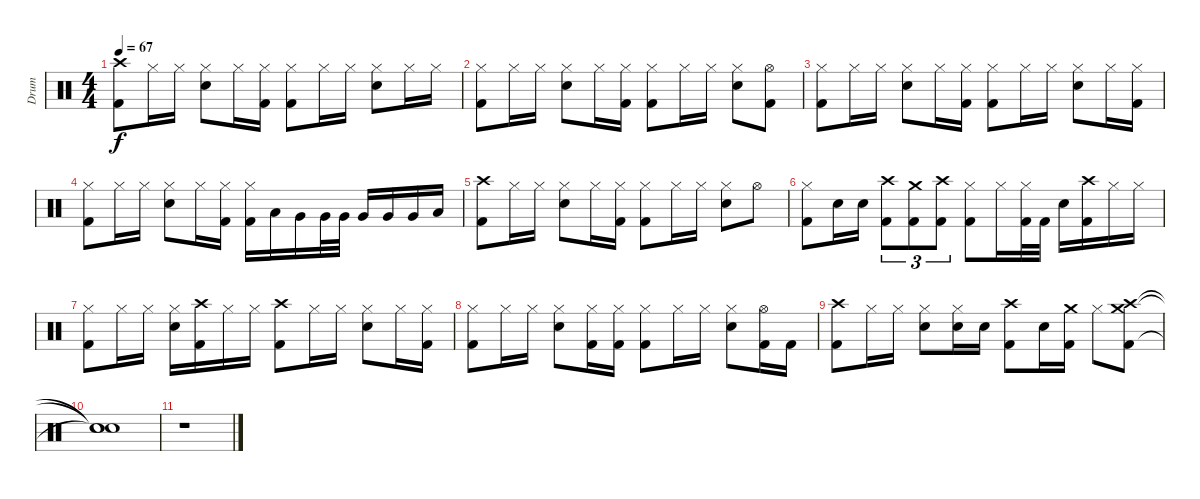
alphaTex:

\track ("Drum" "Drum") {instrument percussion}
\staff {score}
\articulation defaults
\ts (4 4)
\tempo 67
\clef neutral
\ks c
("Crash high (hit)" "Kick (hit) 2").8{dy f} "Hi-Hat (closed)".16 "Hi-Hat (closed)".16 ("Hi-Hat (closed)" "Electric Snare (hit)").8 "Hi-Hat (closed)".16 ("Hi-Hat (closed)" "Kick (hit) 2").16 ("Hi-Hat (closed)" "Kick (hit) 2").8 "Hi-Hat (closed)".16 "Hi-Hat (closed)".16 ("Hi-Hat (closed)" "Electric Snare (hit)").8 "Hi-Hat (closed)".16 "Hi-Hat (closed)".16 |
("Hi-Hat (closed)" "Kick (hit) 2").8 "Hi-Hat (closed)".16 "Hi-Hat (closed)".16 ("Hi-Hat (closed)" "Electric Snare (hit)").8 "Hi-Hat (closed)".16 ("Hi-Hat (closed)" "Kick (hit) 2").16 ("Hi-Hat (closed)" "Kick (hit) 2").8 "Hi-Hat (closed)".16 "Hi-Hat (closed)".16 ("Hi-Hat (closed)" "Electric Snare (hit)").8 ("Hi-Hat (open)" "Kick (hit) 2").8 |
("Hi-Hat (closed)" "Kick (hit) 2").8 "Hi-Hat (closed)".16 "Hi-Hat (closed)".16 ("Hi-Hat (closed)" "Electric Snare (hit)").8 "Hi-Hat (closed)".16 ("Hi-Hat (closed)" "Kick (hit) 2").16 ("Hi-Hat (closed)" "Kick (hit) 2").8 "Hi-Hat (closed)".16 "Hi-Hat (closed)".16 ("Hi-Hat (closed)" "Electric Snare (hit)").8 "Hi-Hat (closed)".16 ("Hi-Hat (closed)" "Kick (hit) 2").16 |
("Hi-Hat (closed)" "Kick (hit) 2").8 "Hi-Hat (closed)".16 "Hi-Hat (closed)".16 ("Hi-Hat (closed)" "Electric Snare (hit)").8 "Hi-Hat (closed)".16 ("Hi-Hat (closed)" "Kick (hit) 2").16 ("Hi-Hat (closed)" "Kick (hit) 2").16 "Low Tom (hit)".16 "Very Low Tom (hit)".16 "Very Low Tom (hit)".32 "Very Low Tom (hit)".32 "Very Low Tom (hit)".16 "Very Low Tom (hit)".16 "Very Low Tom (hit)".16 "Low Floor Tom (hit)".16 |
("Crash high (hit)" "Kick (hit) 2").8 "Hi-Hat (closed)".16 "Hi-Hat (closed)".16 ("Hi-Hat (closed)" "Electric Snare (hit)").8 "Hi-Hat (closed)".16 ("Hi-Hat (closed)" "Kick (hit) 2").16 ("Hi-Hat (closed)" "Kick (hit) 2").8 "Hi-Hat (closed)".16 "Hi-Hat (closed)".16 ("Hi-Hat (closed)" "Electric Snare (hit)").8 "Hi-Hat (open)".8 |
("Hi-Hat (closed)" "Kick (hit) 2").8 "Electric Snare (hit)".16 "Electric Snare (hit)".16 ("Crash high (hit)" "Kick (hit) 2").8{tu (3 2)} ("Crash medium (hit)" "Kick (hit) 2").8{tu (3 2)} ("Crash high (hit)" "Kick (hit) 2").8{tu (3 2)} ("Hi-Hat (closed)" "Kick (hit) 2").8 "Hi-Hat (closed)".16 ("Hi-Hat (closed)" "Kick (hit) 2").32 "Kick (hit) 2".32 "Electric Snare (hit)".16 ("Crash high (hit)" "Kick (hit) 2").16 "Hi-Hat (closed)".16 "Hi-Hat (closed)".16 |
("Hi-Hat (closed)" "Kick (hit) 2").8 "Hi-Hat (closed)".16 "Hi-Hat (closed)".16 ("Hi-Hat (closed)" "Electric Snare (hit)").16 ("Crash high (hit)" "Kick (hit) 2").16 "Hi-Hat (closed)".16 "Hi-Hat (closed)".16 ("Crash high (hit)" "Kick (hit) 2").8 "Hi-Hat (closed)".16 "Hi-Hat (closed)".16 ("Hi-Hat (closed)" "Electric Snare (hit)").8 "Hi-Hat (closed)".16 ("Hi-Hat (closed)" "Kick (hit) 2").16 |
("Hi-Hat (closed)" "Kick (hit) 2").8 "Hi-Hat (closed)".16 "Hi-Hat (closed)".16 ("Hi-Hat (closed)" "Electric Snare (hit)").8 ("Hi-Hat (closed)" "Kick (hit) 2").16 ("Hi-Hat (closed)" "Kick (hit) 2").16 ("Hi-Hat (closed)" "Kick (hit) 2").8 "Hi-Hat (closed)".16 "Hi-Hat (closed)".16 ("Hi-Hat (closed)" "Electric Snare (hit)").8 ("Hi-Hat (open)" "Kick (hit) 2").16 "Kick (hit) 2".16 |
("Crash high (hit)" "Kick (hit) 2").8 "Hi-Hat (closed)".16 "Hi-Hat (closed)".16 ("Hi-Hat (closed)" "Electric Snare (hit)").8 ("Hi-Hat (closed)" "Electric Snare (hit)").16 "Electric Snare (hit)".16 ("Crash high (hit)" "Kick (hit) 2").8 "Electric Snare (hit)".16 ("Crash medium (hit)" "Kick (hit) 2").16 "Hi-Hat (closed)".8 ("Crash medium (hit)" "Crash high (hit)" "Kick (hit) 2").8 |
("Snare (hit)"{t} "Snare (hit)"{t} "Snare (hit)"{t}).1 |
r.1
